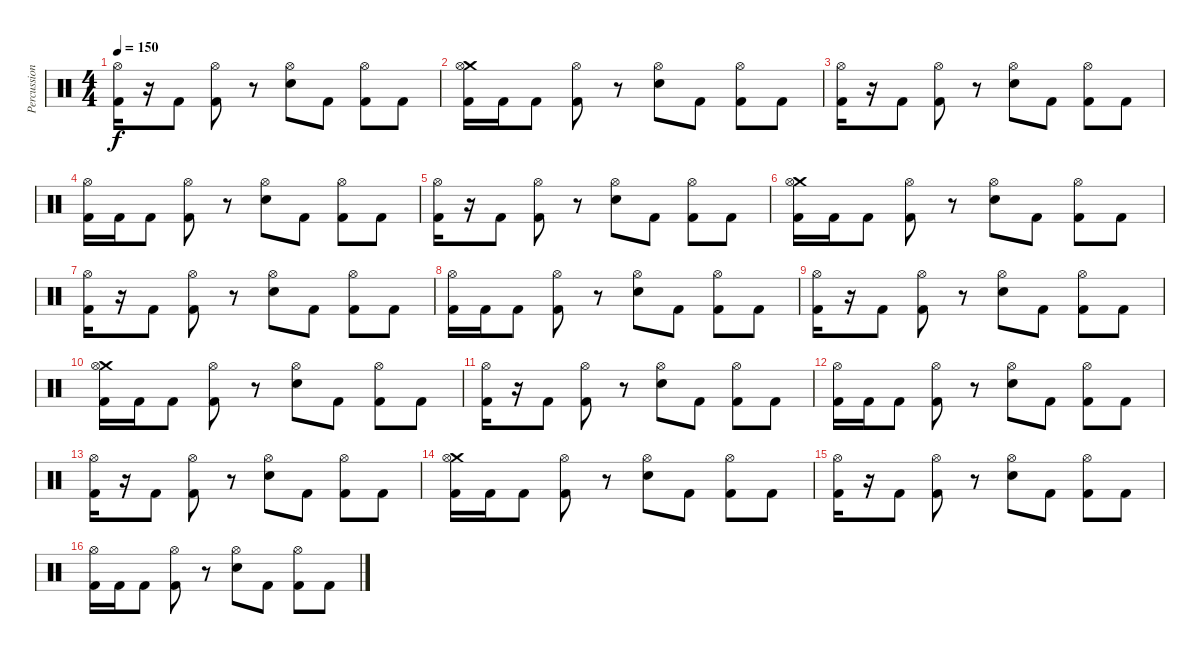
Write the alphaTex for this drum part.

\track ("Percussion" "Percussion") {instrument percussion}
\staff {score}
\articulation defaults
\ts (4 4)
\tempo 150
\clef neutral
\ks c
("Hi-Hat (open)" "Kick (hit) 2").16{dy f} r.16 "Kick (hit) 2".8 ("Hi-Hat (open)" "Kick (hit) 2").8 r.8 ("Hi-Hat (open)" "Electric Snare (hit)").8 "Kick (hit) 2".8 ("Hi-Hat (open)" "Kick (hit) 2").8 "Kick (hit) 2".8 |
("Crash medium (hit)" "Hi-Hat (open)" "Kick (hit) 2").16 "Kick (hit) 2".16 "Kick (hit) 2".8 ("Hi-Hat (open)" "Kick (hit) 2").8 r.8 ("Hi-Hat (open)" "Electric Snare (hit)").8 "Kick (hit) 2".8 ("Hi-Hat (open)" "Kick (hit) 2").8 "Kick (hit) 2".8 |
("Hi-Hat (open)" "Kick (hit) 2").16 r.16 "Kick (hit) 2".8 ("Hi-Hat (open)" "Kick (hit) 2").8 r.8 ("Hi-Hat (open)" "Electric Snare (hit)").8 "Kick (hit) 2".8 ("Hi-Hat (open)" "Kick (hit) 2").8 "Kick (hit) 2".8 |
("Hi-Hat (open)" "Kick (hit) 2").16 "Kick (hit) 2".16 "Kick (hit) 2".8 ("Hi-Hat (open)" "Kick (hit) 2").8 r.8 ("Hi-Hat (open)" "Electric Snare (hit)").8 "Kick (hit) 2".8 ("Hi-Hat (open)" "Kick (hit) 2").8 "Kick (hit) 2".8 |
("Hi-Hat (open)" "Kick (hit) 2").16 r.16 "Kick (hit) 2".8 ("Hi-Hat (open)" "Kick (hit) 2").8 r.8 ("Hi-Hat (open)" "Electric Snare (hit)").8 "Kick (hit) 2".8 ("Hi-Hat (open)" "Kick (hit) 2").8 "Kick (hit) 2".8 |
("Crash medium (hit)" "Hi-Hat (open)" "Kick (hit) 2").16 "Kick (hit) 2".16 "Kick (hit) 2".8 ("Hi-Hat (open)" "Kick (hit) 2").8 r.8 ("Hi-Hat (open)" "Electric Snare (hit)").8 "Kick (hit) 2".8 ("Hi-Hat (open)" "Kick (hit) 2").8 "Kick (hit) 2".8 |
("Hi-Hat (open)" "Kick (hit) 2").16 r.16 "Kick (hit) 2".8 ("Hi-Hat (open)" "Kick (hit) 2").8 r.8 ("Hi-Hat (open)" "Electric Snare (hit)").8 "Kick (hit) 2".8 ("Hi-Hat (open)" "Kick (hit) 2").8 "Kick (hit) 2".8 |
("Hi-Hat (open)" "Kick (hit) 2").16 "Kick (hit) 2".16 "Kick (hit) 2".8 ("Hi-Hat (open)" "Kick (hit) 2").8 r.8 ("Hi-Hat (open)" "Electric Snare (hit)").8 "Kick (hit) 2".8 ("Hi-Hat (open)" "Kick (hit) 2").8 "Kick (hit) 2".8 |
("Hi-Hat (open)" "Kick (hit) 2").16 r.16 "Kick (hit) 2".8 ("Hi-Hat (open)" "Kick (hit) 2").8 r.8 ("Hi-Hat (open)" "Electric Snare (hit)").8 "Kick (hit) 2".8 ("Hi-Hat (open)" "Kick (hit) 2").8 "Kick (hit) 2".8 |
("Crash medium (hit)" "Hi-Hat (open)" "Kick (hit) 2").16 "Kick (hit) 2".16 "Kick (hit) 2".8 ("Hi-Hat (open)" "Kick (hit) 2").8 r.8 ("Hi-Hat (open)" "Electric Snare (hit)").8 "Kick (hit) 2".8 ("Hi-Hat (open)" "Kick (hit) 2").8 "Kick (hit) 2".8 |
("Hi-Hat (open)" "Kick (hit) 2").16 r.16 "Kick (hit) 2".8 ("Hi-Hat (open)" "Kick (hit) 2").8 r.8 ("Hi-Hat (open)" "Electric Snare (hit)").8 "Kick (hit) 2".8 ("Hi-Hat (open)" "Kick (hit) 2").8 "Kick (hit) 2".8 |
("Hi-Hat (open)" "Kick (hit) 2").16 "Kick (hit) 2".16 "Kick (hit) 2".8 ("Hi-Hat (open)" "Kick (hit) 2").8 r.8 ("Hi-Hat (open)" "Electric Snare (hit)").8 "Kick (hit) 2".8 ("Hi-Hat (open)" "Kick (hit) 2").8 "Kick (hit) 2".8 |
("Hi-Hat (open)" "Kick (hit) 2").16 r.16 "Kick (hit) 2".8 ("Hi-Hat (open)" "Kick (hit) 2").8 r.8 ("Hi-Hat (open)" "Electric Snare (hit)").8 "Kick (hit) 2".8 ("Hi-Hat (open)" "Kick (hit) 2").8 "Kick (hit) 2".8 |
("Crash medium (hit)" "Hi-Hat (open)" "Kick (hit) 2").16 "Kick (hit) 2".16 "Kick (hit) 2".8 ("Hi-Hat (open)" "Kick (hit) 2").8 r.8 ("Hi-Hat (open)" "Electric Snare (hit)").8 "Kick (hit) 2".8 ("Hi-Hat (open)" "Kick (hit) 2").8 "Kick (hit) 2".8 |
("Hi-Hat (open)" "Kick (hit) 2").16 r.16 "Kick (hit) 2".8 ("Hi-Hat (open)" "Kick (hit) 2").8 r.8 ("Hi-Hat (open)" "Electric Snare (hit)").8 "Kick (hit) 2".8 ("Hi-Hat (open)" "Kick (hit) 2").8 "Kick (hit) 2".8 |
("Hi-Hat (open)" "Kick (hit) 2").16 "Kick (hit) 2".16 "Kick (hit) 2".8 ("Hi-Hat (open)" "Kick (hit) 2").8 r.8 ("Hi-Hat (open)" "Electric Snare (hit)").8 "Kick (hit) 2".8 ("Hi-Hat (open)" "Kick (hit) 2").8 "Kick (hit) 2".8
